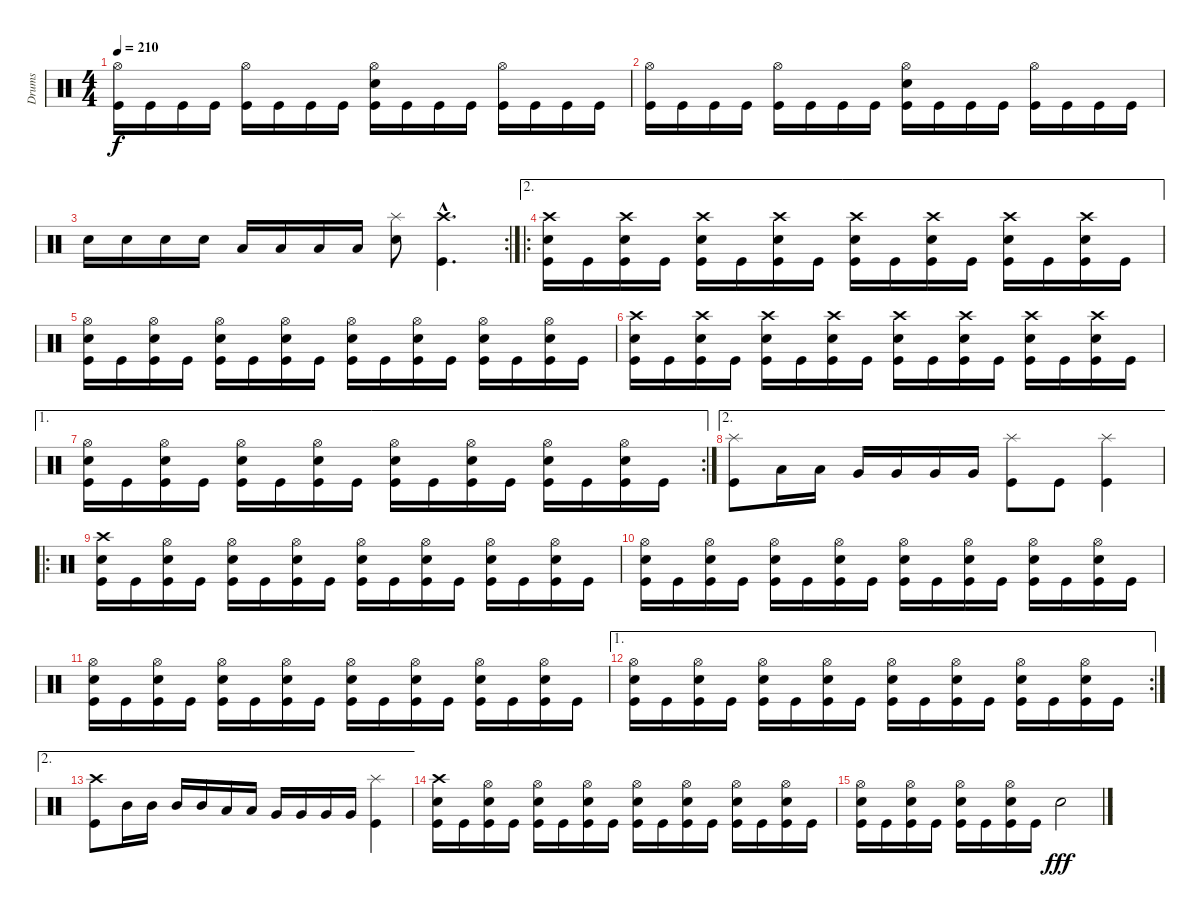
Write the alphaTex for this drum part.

\track ("Drums" "Drums") {instrument percussion}
\staff {score}
\articulation defaults
\ts (4 4)
\tempo 210
\clef neutral
\ks c
("Hi-Hat (open)" "Kick (hit)").16{dy f} "Kick (hit)".16 "Kick (hit)".16 "Kick (hit)".16 ("Hi-Hat (open)" "Kick (hit)").16 "Kick (hit)".16 "Kick (hit)".16 "Kick (hit)".16 ("Hi-Hat (open)" "Electric Snare (hit)" "Kick (hit)").16 "Kick (hit)".16 "Kick (hit)".16 "Kick (hit)".16 ("Hi-Hat (open)" "Kick (hit)").16 "Kick (hit)".16 "Kick (hit)".16 "Kick (hit)".16 |
("Hi-Hat (open)" "Kick (hit)").16 "Kick (hit)".16 "Kick (hit)".16 "Kick (hit)".16 ("Hi-Hat (open)" "Kick (hit)").16 "Kick (hit)".16 "Kick (hit)".16 "Kick (hit)".16 ("Hi-Hat (open)" "Electric Snare (hit)" "Kick (hit)").16 "Kick (hit)".16 "Kick (hit)".16 "Kick (hit)".16 ("Hi-Hat (open)" "Kick (hit)").16 "Kick (hit)".16 "Kick (hit)".16 "Kick (hit)".16 |
\rc 2 "Electric Snare (hit)".16 "Electric Snare (hit)".16 "Electric Snare (hit)".16 "Electric Snare (hit)".16 "Low Tom (hit)".16 "Low Tom (hit)".16 "Low Tom (hit)".16 "Low Tom (hit)".16
("Splash (hit)" "Electric Snare (hit)").8 ("Crash high (hit)"{hac} "Kick (hit)"{hac}).4{d} |
\ae 2
\ro
("Crash high (hit)" "Electric Snare (hit)" "Kick (hit)").16 "Kick (hit)".16 ("Crash high (hit)" "Electric Snare (hit)" "Kick (hit)").16 "Kick (hit)".16 ("Crash high (hit)" "Electric Snare (hit)" "Kick (hit)").16 "Kick (hit)".16 ("Crash high (hit)" "Electric Snare (hit)" "Kick (hit)").16 "Kick (hit)".16 ("Crash high (hit)" "Electric Snare (hit)" "Kick (hit)").16 "Kick (hit)".16 ("Crash high (hit)" "Electric Snare (hit)" "Kick (hit)").16 "Kick (hit)".16 ("Crash high (hit)" "Electric Snare (hit)" "Kick (hit)").16 "Kick (hit)".16 ("Crash high (hit)" "Electric Snare (hit)" "Kick (hit)").16 "Kick (hit)".16 |
("Hi-Hat (open)" "Electric Snare (hit)" "Kick (hit)").16 "Kick (hit)".16 ("Hi-Hat (open)" "Electric Snare (hit)" "Kick (hit)").16 "Kick (hit)".16 ("Hi-Hat (open)" "Electric Snare (hit)" "Kick (hit)").16 "Kick (hit)".16 ("Hi-Hat (open)" "Electric Snare (hit)" "Kick (hit)").16 "Kick (hit)".16 ("Hi-Hat (open)" "Electric Snare (hit)" "Kick (hit)").16 "Kick (hit)".16 ("Hi-Hat (open)" "Electric Snare (hit)" "Kick (hit)").16 "Kick (hit)".16 ("Hi-Hat (open)" "Electric Snare (hit)" "Kick (hit)").16 "Kick (hit)".16 ("Hi-Hat (open)" "Electric Snare (hit)" "Kick (hit)").16 "Kick (hit)".16 |
("Crash high (hit)" "Electric Snare (hit)" "Kick (hit)").16 "Kick (hit)".16 ("Crash high (hit)" "Electric Snare (hit)" "Kick (hit)").16 "Kick (hit)".16 ("Crash high (hit)" "Electric Snare (hit)" "Kick (hit)").16 "Kick (hit)".16 ("Crash high (hit)" "Electric Snare (hit)" "Kick (hit)").16 "Kick (hit)".16 ("Crash high (hit)" "Electric Snare (hit)" "Kick (hit)").16 "Kick (hit)".16 ("Crash high (hit)" "Electric Snare (hit)" "Kick (hit)").16 "Kick (hit)".16 ("Crash high (hit)" "Electric Snare (hit)" "Kick (hit)").16 "Kick (hit)".16 ("Crash high (hit)" "Electric Snare (hit)" "Kick (hit)").16 "Kick (hit)".16 |
\ae 1
\rc 2
("Hi-Hat (open)" "Electric Snare (hit)" "Kick (hit)").16 "Kick (hit)".16 ("Hi-Hat (open)" "Electric Snare (hit)" "Kick (hit)").16 "Kick (hit)".16 ("Hi-Hat (open)" "Electric Snare (hit)" "Kick (hit)").16 "Kick (hit)".16 ("Hi-Hat (open)" "Electric Snare (hit)" "Kick (hit)").16 "Kick (hit)".16 ("Hi-Hat (open)" "Electric Snare (hit)" "Kick (hit)").16 "Kick (hit)".16 ("Hi-Hat (open)" "Electric Snare (hit)" "Kick (hit)").16 "Kick (hit)".16 ("Hi-Hat (open)" "Electric Snare (hit)" "Kick (hit)").16 "Kick (hit)".16 ("Hi-Hat (open)" "Electric Snare (hit)" "Kick (hit)").16 "Kick (hit)".16 |
\ae 2
("Splash (hit)" "Kick (hit)").8 "Low Tom (hit)".16 "Low Tom (hit)".16 "Very Low Tom (hit)".16 "Very Low Tom (hit)".16 "Very Low Tom (hit)".16 "Very Low Tom (hit)".16 ("Splash (hit)" "Kick (hit)").8 "Kick (hit)".8 ("Splash (hit)" "Kick (hit)").4 |
\ro
("Crash high (hit)" "Electric Snare (hit)" "Kick (hit)").16 "Kick (hit)".16 ("Hi-Hat (open)" "Electric Snare (hit)" "Kick (hit)").16 "Kick (hit)".16 ("Hi-Hat (open)" "Electric Snare (hit)" "Kick (hit)").16 "Kick (hit)".16 ("Hi-Hat (open)" "Electric Snare (hit)" "Kick (hit)").16 "Kick (hit)".16 ("Hi-Hat (open)" "Electric Snare (hit)" "Kick (hit)").16 "Kick (hit)".16 ("Hi-Hat (open)" "Electric Snare (hit)" "Kick (hit)").16 "Kick (hit)".16 ("Hi-Hat (open)" "Electric Snare (hit)" "Kick (hit)").16 "Kick (hit)".16 ("Hi-Hat (open)" "Electric Snare (hit)" "Kick (hit)").16 "Kick (hit)".16 |
("Hi-Hat (open)" "Electric Snare (hit)" "Kick (hit)").16 "Kick (hit)".16 ("Hi-Hat (open)" "Electric Snare (hit)" "Kick (hit)").16 "Kick (hit)".16 ("Hi-Hat (open)" "Electric Snare (hit)" "Kick (hit)").16 "Kick (hit)".16 ("Hi-Hat (open)" "Electric Snare (hit)" "Kick (hit)").16 "Kick (hit)".16 ("Hi-Hat (open)" "Electric Snare (hit)" "Kick (hit)").16 "Kick (hit)".16 ("Hi-Hat (open)" "Electric Snare (hit)" "Kick (hit)").16 "Kick (hit)".16 ("Hi-Hat (open)" "Electric Snare (hit)" "Kick (hit)").16 "Kick (hit)".16 ("Hi-Hat (open)" "Electric Snare (hit)" "Kick (hit)").16 "Kick (hit)".16 |
("Hi-Hat (open)" "Electric Snare (hit)" "Kick (hit)").16 "Kick (hit)".16 ("Hi-Hat (open)" "Electric Snare (hit)" "Kick (hit)").16 "Kick (hit)".16 ("Hi-Hat (open)" "Electric Snare (hit)" "Kick (hit)").16 "Kick (hit)".16 ("Hi-Hat (open)" "Electric Snare (hit)" "Kick (hit)").16 "Kick (hit)".16 ("Hi-Hat (open)" "Electric Snare (hit)" "Kick (hit)").16 "Kick (hit)".16 ("Hi-Hat (open)" "Electric Snare (hit)" "Kick (hit)").16 "Kick (hit)".16 ("Hi-Hat (open)" "Electric Snare (hit)" "Kick (hit)").16 "Kick (hit)".16 ("Hi-Hat (open)" "Electric Snare (hit)" "Kick (hit)").16 "Kick (hit)".16 |
\ae 1
\rc 2
("Hi-Hat (open)" "Electric Snare (hit)" "Kick (hit)").16 "Kick (hit)".16 ("Hi-Hat (open)" "Electric Snare (hit)" "Kick (hit)").16 "Kick (hit)".16 ("Hi-Hat (open)" "Electric Snare (hit)" "Kick (hit)").16 "Kick (hit)".16 ("Hi-Hat (open)" "Electric Snare (hit)" "Kick (hit)").16 "Kick (hit)".16 ("Hi-Hat (open)" "Electric Snare (hit)" "Kick (hit)").16 "Kick (hit)".16 ("Hi-Hat (open)" "Electric Snare (hit)" "Kick (hit)").16 "Kick (hit)".16 ("Hi-Hat (open)" "Electric Snare (hit)" "Kick (hit)").16 "Kick (hit)".16 ("Hi-Hat (open)" "Electric Snare (hit)" "Kick (hit)").16 "Kick (hit)".16 |
\ae 2
("Crash high (hit)" "Kick (hit)").8 "Mid Tom (hit)".16 "Mid Tom (hit)".16 "Mid Tom (hit)".16 "Mid Tom (hit)".16 "Low Tom (hit)".16 "Low Tom (hit)".16 "Very Low Tom (hit)".16 "Very Low Tom (hit)".16 "Very Low Tom (hit)".16 "Very Low Tom (hit)".16 ("Splash (hit)" "Kick (hit)").4 |
("Crash high (hit)" "Electric Snare (hit)" "Kick (hit)").16 "Kick (hit)".16 ("Hi-Hat (open)" "Electric Snare (hit)" "Kick (hit)").16 "Kick (hit)".16 ("Hi-Hat (open)" "Electric Snare (hit)" "Kick (hit)").16 "Kick (hit)".16 ("Hi-Hat (open)" "Electric Snare (hit)" "Kick (hit)").16 "Kick (hit)".16 ("Hi-Hat (open)" "Electric Snare (hit)" "Kick (hit)").16 "Kick (hit)".16 ("Hi-Hat (open)" "Electric Snare (hit)" "Kick (hit)").16 "Kick (hit)".16 ("Hi-Hat (open)" "Electric Snare (hit)" "Kick (hit)").16 "Kick (hit)".16 ("Hi-Hat (open)" "Electric Snare (hit)" "Kick (hit)").16 "Kick (hit)".16 |
("Hi-Hat (open)" "Electric Snare (hit)" "Kick (hit)").16 "Kick (hit)".16 ("Hi-Hat (open)" "Electric Snare (hit)" "Kick (hit)").16 "Kick (hit)".16 ("Hi-Hat (open)" "Electric Snare (hit)" "Kick (hit)").16 "Kick (hit)".16 ("Hi-Hat (open)" "Electric Snare (hit)" "Kick (hit)").16 "Kick (hit)".16 "Electric Snare (hit)".2{dy fff}
